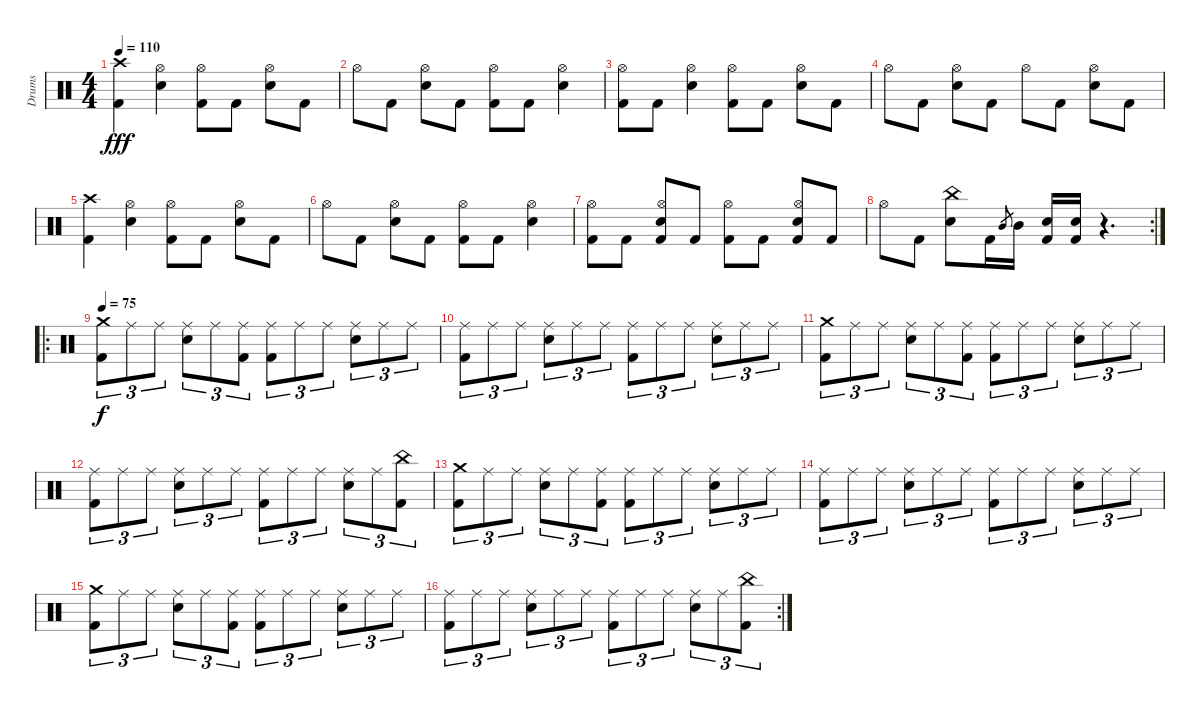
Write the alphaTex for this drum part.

\track ("Drums" "Drums") {instrument percussion}
\staff {score}
\articulation defaults
\ts (4 4)
\tempo 110
\clef neutral
\ks c
("Crash high (hit)" "Kick (hit) 2").4{dy fff} ("Hi-Hat (open)" "Snare (hit) 2").4 ("Hi-Hat (open)" "Kick (hit) 2").8 "Kick (hit) 2".8 ("Hi-Hat (open)" "Snare (hit) 2").8 "Kick (hit) 2".8 |
"Hi-Hat (open)".8 "Kick (hit) 2".8 ("Hi-Hat (open)" "Snare (hit) 2").8 "Kick (hit) 2".8 ("Hi-Hat (open)" "Kick (hit) 2").8 "Kick (hit) 2".8 ("Hi-Hat (open)" "Snare (hit) 2").4 |
("Hi-Hat (open)" "Kick (hit) 2").8 "Kick (hit) 2".8 ("Hi-Hat (open)" "Snare (hit) 2").4 ("Hi-Hat (open)" "Kick (hit) 2").8 "Kick (hit) 2".8 ("Hi-Hat (open)" "Snare (hit) 2").8 "Kick (hit) 2".8 |
"Hi-Hat (open)".8 "Kick (hit) 2".8 ("Hi-Hat (open)" "Snare (hit) 2").8 "Kick (hit) 2".8 "Hi-Hat (open)".8 "Kick (hit) 2".8 ("Hi-Hat (open)" "Snare (hit) 2").8 "Kick (hit) 2".8 |
("Crash high (hit)" "Kick (hit) 2").4 ("Hi-Hat (open)" "Snare (hit) 2").4 ("Hi-Hat (open)" "Kick (hit) 2").8 "Kick (hit) 2".8 ("Hi-Hat (open)" "Snare (hit) 2").8 "Kick (hit) 2".8 |
"Hi-Hat (open)".8 "Kick (hit) 2".8 ("Hi-Hat (open)" "Snare (hit) 2").8 "Kick (hit) 2".8 ("Hi-Hat (open)" "Kick (hit) 2").8 "Kick (hit) 2".8 ("Hi-Hat (open)" "Snare (hit) 2").4 |
("Hi-Hat (open)" "Kick (hit) 2").8 "Kick (hit) 2".8 ("Hi-Hat (open)" "Snare (hit) 2" "Kick (hit) 2").8 "Kick (hit) 2".8 ("Hi-Hat (open)" "Kick (hit) 2").8 "Kick (hit) 2".8 ("Hi-Hat (open)" "Snare (hit) 2" "Kick (hit) 2").8 "Kick (hit) 2".8 |
\rc 2 "Hi-Hat (open)".8 "Kick (hit) 2".8
("China (hit)" "Snare (hit) 2").8 "Kick (hit) 2".16 "Mid Tom (hit)".8{gr} "Mid Tom (hit)".16 ("Snare (hit) 2" "Kick (hit) 2").16 ("Snare (hit) 2" "Kick (hit) 2").16 r.4{d} |
\ro
\tempo 75
("Crash medium (hit)" "Kick (hit) 2").8{tu (3 2) dy f} "Ride (middle)".8{tu (3 2)} "Ride (middle)".8{tu (3 2)} ("Ride (middle)" "Snare (hit) 2").8{tu (3 2)} "Ride (middle)".8{tu (3 2)} ("Ride (middle)" "Kick (hit) 2").8{tu (3 2)} ("Ride (middle)" "Kick (hit) 2").8{tu (3 2)} "Ride (middle)".8{tu (3 2)} "Ride (middle)".8{tu (3 2)} ("Ride (middle)" "Snare (hit) 2").8{tu (3 2)} "Ride (middle)".8{tu (3 2)} "Ride (middle)".8{tu (3 2)} |
("Ride (middle)" "Kick (hit) 2").8{tu (3 2)} "Ride (middle)".8{tu (3 2)} "Ride (middle)".8{tu (3 2)} ("Ride (middle)" "Snare (hit) 2").8{tu (3 2)} "Ride (middle)".8{tu (3 2)} "Ride (middle)".8{tu (3 2)} ("Ride (middle)" "Kick (hit) 2").8{tu (3 2)} "Ride (middle)".8{tu (3 2)} "Ride (middle)".8{tu (3 2)} ("Ride (middle)" "Snare (hit) 2").8{tu (3 2)} "Ride (middle)".8{tu (3 2)} "Ride (middle)".8{tu (3 2)} |
("Crash medium (hit)" "Kick (hit) 2").8{tu (3 2)} "Ride (middle)".8{tu (3 2)} "Ride (middle)".8{tu (3 2)} ("Ride (middle)" "Snare (hit) 2").8{tu (3 2)} "Ride (middle)".8{tu (3 2)} ("Ride (middle)" "Kick (hit) 2").8{tu (3 2)} ("Ride (middle)" "Kick (hit) 2").8{tu (3 2)} "Ride (middle)".8{tu (3 2)} "Ride (middle)".8{tu (3 2)} ("Ride (middle)" "Snare (hit) 2").8{tu (3 2)} "Ride (middle)".8{tu (3 2)} "Ride (middle)".8{tu (3 2)} |
("Ride (middle)" "Kick (hit) 2").8{tu (3 2)} "Ride (middle)".8{tu (3 2)} "Ride (middle)".8{tu (3 2)} ("Ride (middle)" "Snare (hit) 2").8{tu (3 2)} "Ride (middle)".8{tu (3 2)} "Ride (middle)".8{tu (3 2)} ("Ride (middle)" "Kick (hit) 2").8{tu (3 2)} "Ride (middle)".8{tu (3 2)} "Ride (middle)".8{tu (3 2)} ("Ride (middle)" "Snare (hit) 2").8{tu (3 2)} "Ride (middle)".8{tu (3 2)} ("China (hit)" "Kick (hit) 2").8{tu (3 2)} |
("Crash medium (hit)" "Kick (hit) 2").8{tu (3 2)} "Ride (middle)".8{tu (3 2)} "Ride (middle)".8{tu (3 2)} ("Ride (middle)" "Snare (hit) 2").8{tu (3 2)} "Ride (middle)".8{tu (3 2)} ("Ride (middle)" "Kick (hit) 2").8{tu (3 2)} ("Ride (middle)" "Kick (hit) 2").8{tu (3 2)} "Ride (middle)".8{tu (3 2)} "Ride (middle)".8{tu (3 2)} ("Ride (middle)" "Snare (hit) 2").8{tu (3 2)} "Ride (middle)".8{tu (3 2)} "Ride (middle)".8{tu (3 2)} |
("Ride (middle)" "Kick (hit) 2").8{tu (3 2)} "Ride (middle)".8{tu (3 2)} "Ride (middle)".8{tu (3 2)} ("Ride (middle)" "Snare (hit) 2").8{tu (3 2)} "Ride (middle)".8{tu (3 2)} "Ride (middle)".8{tu (3 2)} ("Ride (middle)" "Kick (hit) 2").8{tu (3 2)} "Ride (middle)".8{tu (3 2)} "Ride (middle)".8{tu (3 2)} ("Ride (middle)" "Snare (hit) 2").8{tu (3 2)} "Ride (middle)".8{tu (3 2)} "Ride (middle)".8{tu (3 2)} |
("Crash medium (hit)" "Kick (hit) 2").8{tu (3 2)} "Ride (middle)".8{tu (3 2)} "Ride (middle)".8{tu (3 2)} ("Ride (middle)" "Snare (hit) 2").8{tu (3 2)} "Ride (middle)".8{tu (3 2)} ("Ride (middle)" "Kick (hit) 2").8{tu (3 2)} ("Ride (middle)" "Kick (hit) 2").8{tu (3 2)} "Ride (middle)".8{tu (3 2)} "Ride (middle)".8{tu (3 2)} ("Ride (middle)" "Snare (hit) 2").8{tu (3 2)} "Ride (middle)".8{tu (3 2)} "Ride (middle)".8{tu (3 2)} |
\rc 2
("Ride (middle)" "Kick (hit) 2").8{tu (3 2)} "Ride (middle)".8{tu (3 2)} "Ride (middle)".8{tu (3 2)} ("Ride (middle)" "Snare (hit) 2").8{tu (3 2)} "Ride (middle)".8{tu (3 2)} "Ride (middle)".8{tu (3 2)} ("Ride (middle)" "Kick (hit) 2").8{tu (3 2)} "Ride (middle)".8{tu (3 2)} "Ride (middle)".8{tu (3 2)} ("Ride (middle)" "Snare (hit) 2").8{tu (3 2)} "Ride (middle)".8{tu (3 2)} ("China (hit)" "Kick (hit) 2").8{tu (3 2)}
